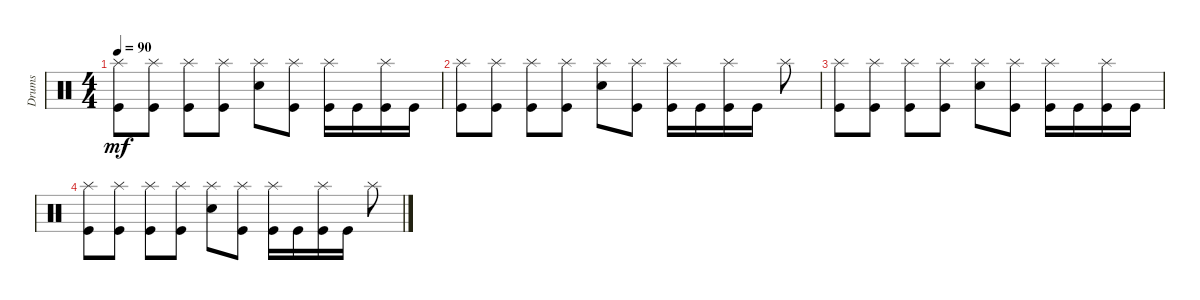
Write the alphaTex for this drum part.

\track ("Drums" "Drums") {instrument percussion}
\staff {score}
\articulation defaults
\ts (4 4)
\tempo 90
\clef neutral
\ks aminor
("Kick (hit)" "Splash (hit)").8{dy mf} ("Kick (hit)" "Splash (hit)").8 ("Kick (hit)" "Splash (hit)").8 ("Kick (hit)" "Splash (hit)").8 ("Splash (hit)" "Snare (hit) 2").8 ("Kick (hit)" "Splash (hit)").8 ("Kick (hit)" "Splash (hit)").16 "Kick (hit)".16 ("Kick (hit)" "Splash (hit)").16 "Kick (hit)".16 |
("Splash (hit)" "Kick (hit)").8 ("Kick (hit)" "Splash (hit)").8 ("Splash (hit)" "Kick (hit)").8 ("Kick (hit)" "Splash (hit)").8 ("Splash (hit)" "Snare (hit) 2").8 ("Kick (hit)" "Splash (hit)").8 ("Kick (hit)" "Splash (hit)").16 "Kick (hit)".16 ("Kick (hit)" "Splash (hit)").16 "Kick (hit)".16 "Splash (hit)".8 |
("Kick (hit)" "Splash (hit)").8 ("Kick (hit)" "Splash (hit)").8 ("Kick (hit)" "Splash (hit)").8 ("Kick (hit)" "Splash (hit)").8 ("Splash (hit)" "Snare (hit) 2").8 ("Kick (hit)" "Splash (hit)").8 ("Kick (hit)" "Splash (hit)").16 "Kick (hit)".16 ("Kick (hit)" "Splash (hit)").16 "Kick (hit)".16 |
("Splash (hit)" "Kick (hit)").8 ("Kick (hit)" "Splash (hit)").8 ("Splash (hit)" "Kick (hit)").8 ("Kick (hit)" "Splash (hit)").8 ("Splash (hit)" "Snare (hit) 2").8 ("Kick (hit)" "Splash (hit)").8 ("Kick (hit)" "Splash (hit)").16 "Kick (hit)".16 ("Kick (hit)" "Splash (hit)").16 "Kick (hit)".16 "Splash (hit)".8
